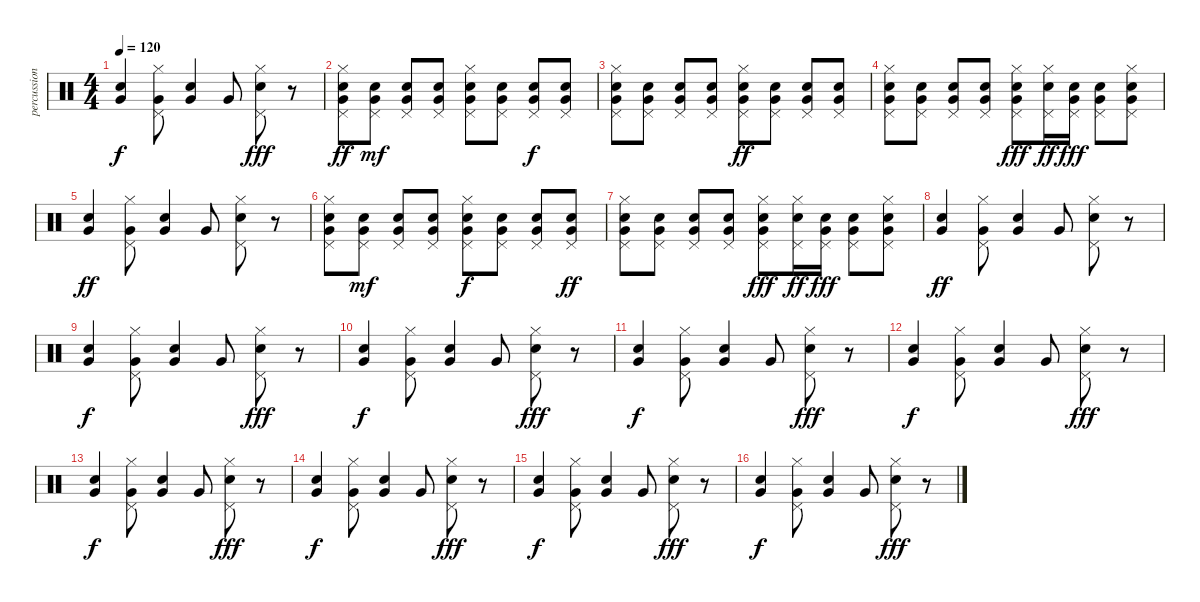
\track ("percussion" "percussion") {instrument percussion}
\staff {score}
\articulation defaults
\ts (4 4)
\tempo 120
\clef neutral
\ks c
("Snare (hit) 2" "Very Low Tom (hit)").4{dy f} ("Pedal Hi-Hat (hit)" "Hi-Hat (closed)" "Very Low Tom (hit)").8 ("Snare (hit) 2" "Very Low Tom (hit)").4 "Very Low Tom (hit)".8 ("Pedal Hi-Hat (hit)" "Hi-Hat (closed)" "Snare (hit) 2").8{dy fff} r.8 |
("Pedal Hi-Hat (hit)" "Hi-Hat (closed)" "Snare (hit) 2" "Very Low Tom (hit)").8{dy ff} ("Pedal Hi-Hat (hit)" "Snare (hit) 2" "Very Low Tom (hit)").8{dy mf} ("Pedal Hi-Hat (hit)" "Snare (hit) 2" "Very Low Tom (hit)").8 ("Pedal Hi-Hat (hit)" "Snare (hit) 2" "Very Low Tom (hit)").8 ("Pedal Hi-Hat (hit)" "Hi-Hat (closed)" "Snare (hit) 2" "Very Low Tom (hit)").8 ("Pedal Hi-Hat (hit)" "Snare (hit) 2" "Very Low Tom (hit)").8 ("Pedal Hi-Hat (hit)" "Snare (hit) 2" "Very Low Tom (hit)").8{dy f} ("Pedal Hi-Hat (hit)" "Snare (hit) 2" "Very Low Tom (hit)").8 |
("Pedal Hi-Hat (hit)" "Hi-Hat (closed)" "Snare (hit) 2" "Very Low Tom (hit)").8 ("Pedal Hi-Hat (hit)" "Snare (hit) 2" "Very Low Tom (hit)").8 ("Pedal Hi-Hat (hit)" "Snare (hit) 2" "Very Low Tom (hit)").8 ("Pedal Hi-Hat (hit)" "Snare (hit) 2" "Very Low Tom (hit)").8 ("Pedal Hi-Hat (hit)" "Hi-Hat (closed)" "Snare (hit) 2" "Very Low Tom (hit)").8{dy ff} ("Pedal Hi-Hat (hit)" "Snare (hit) 2" "Very Low Tom (hit)").8 ("Pedal Hi-Hat (hit)" "Snare (hit) 2" "Very Low Tom (hit)").8 ("Pedal Hi-Hat (hit)" "Snare (hit) 2" "Very Low Tom (hit)").8 |
("Pedal Hi-Hat (hit)" "Hi-Hat (closed)" "Snare (hit) 2" "Very Low Tom (hit)").8 ("Pedal Hi-Hat (hit)" "Snare (hit) 2" "Very Low Tom (hit)").8 ("Pedal Hi-Hat (hit)" "Snare (hit) 2" "Very Low Tom (hit)").8 ("Pedal Hi-Hat (hit)" "Snare (hit) 2" "Very Low Tom (hit)").8 ("Pedal Hi-Hat (hit)" "Hi-Hat (closed)" "Snare (hit) 2" "Very Low Tom (hit)").8{dy fff} ("Pedal Hi-Hat (hit)" "Hi-Hat (closed)" "Snare (hit) 2").16{dy ff} ("Pedal Hi-Hat (hit)" "Snare (hit) 2" "Very Low Tom (hit)").16{dy fff} ("Pedal Hi-Hat (hit)" "Snare (hit) 2" "Very Low Tom (hit)").8 ("Pedal Hi-Hat (hit)" "Hi-Hat (closed)" "Snare (hit) 2" "Very Low Tom (hit)").8 |
("Snare (hit) 2" "Very Low Tom (hit)").4{dy ff} ("Pedal Hi-Hat (hit)" "Hi-Hat (closed)" "Very Low Tom (hit)").8 ("Snare (hit) 2" "Very Low Tom (hit)").4 "Very Low Tom (hit)".8 ("Pedal Hi-Hat (hit)" "Hi-Hat (closed)" "Snare (hit) 2").8 r.8 |
("Pedal Hi-Hat (hit)" "Hi-Hat (closed)" "Snare (hit) 2" "Very Low Tom (hit)").8 ("Pedal Hi-Hat (hit)" "Snare (hit) 2" "Very Low Tom (hit)").8{dy mf} ("Pedal Hi-Hat (hit)" "Snare (hit) 2" "Very Low Tom (hit)").8 ("Pedal Hi-Hat (hit)" "Snare (hit) 2" "Very Low Tom (hit)").8 ("Pedal Hi-Hat (hit)" "Hi-Hat (closed)" "Snare (hit) 2" "Very Low Tom (hit)").8{dy f} ("Pedal Hi-Hat (hit)" "Snare (hit) 2" "Very Low Tom (hit)").8 ("Pedal Hi-Hat (hit)" "Snare (hit) 2" "Very Low Tom (hit)").8 ("Pedal Hi-Hat (hit)" "Snare (hit) 2" "Very Low Tom (hit)").8{dy ff} |
("Pedal Hi-Hat (hit)" "Hi-Hat (closed)" "Snare (hit) 2" "Very Low Tom (hit)").8 ("Pedal Hi-Hat (hit)" "Snare (hit) 2" "Very Low Tom (hit)").8 ("Pedal Hi-Hat (hit)" "Snare (hit) 2" "Very Low Tom (hit)").8 ("Pedal Hi-Hat (hit)" "Snare (hit) 2" "Very Low Tom (hit)").8 ("Pedal Hi-Hat (hit)" "Hi-Hat (closed)" "Snare (hit) 2" "Very Low Tom (hit)").8{dy fff} ("Pedal Hi-Hat (hit)" "Hi-Hat (closed)" "Snare (hit) 2").16{dy ff} ("Pedal Hi-Hat (hit)" "Snare (hit) 2" "Very Low Tom (hit)").16{dy fff} ("Pedal Hi-Hat (hit)" "Snare (hit) 2" "Very Low Tom (hit)").8 ("Pedal Hi-Hat (hit)" "Hi-Hat (closed)" "Snare (hit) 2" "Very Low Tom (hit)").8 |
("Snare (hit) 2" "Very Low Tom (hit)").4{dy ff} ("Pedal Hi-Hat (hit)" "Hi-Hat (closed)" "Very Low Tom (hit)").8 ("Snare (hit) 2" "Very Low Tom (hit)").4 "Very Low Tom (hit)".8 ("Pedal Hi-Hat (hit)" "Hi-Hat (closed)" "Snare (hit) 2").8 r.8 |
("Snare (hit) 2" "Very Low Tom (hit)").4{dy f} ("Pedal Hi-Hat (hit)" "Hi-Hat (closed)" "Very Low Tom (hit)").8 ("Snare (hit) 2" "Very Low Tom (hit)").4 "Very Low Tom (hit)".8 ("Pedal Hi-Hat (hit)" "Hi-Hat (closed)" "Snare (hit) 2").8{dy fff} r.8 |
("Snare (hit) 2" "Very Low Tom (hit)").4{dy f} ("Pedal Hi-Hat (hit)" "Hi-Hat (closed)" "Very Low Tom (hit)").8 ("Snare (hit) 2" "Very Low Tom (hit)").4 "Very Low Tom (hit)".8 ("Pedal Hi-Hat (hit)" "Hi-Hat (closed)" "Snare (hit) 2").8{dy fff} r.8 |
("Snare (hit) 2" "Very Low Tom (hit)").4{dy f} ("Pedal Hi-Hat (hit)" "Hi-Hat (closed)" "Very Low Tom (hit)").8 ("Snare (hit) 2" "Very Low Tom (hit)").4 "Very Low Tom (hit)".8 ("Pedal Hi-Hat (hit)" "Hi-Hat (closed)" "Snare (hit) 2").8{dy fff} r.8 |
("Snare (hit) 2" "Very Low Tom (hit)").4{dy f} ("Pedal Hi-Hat (hit)" "Hi-Hat (closed)" "Very Low Tom (hit)").8 ("Snare (hit) 2" "Very Low Tom (hit)").4 "Very Low Tom (hit)".8 ("Pedal Hi-Hat (hit)" "Hi-Hat (closed)" "Snare (hit) 2").8{dy fff} r.8 |
("Snare (hit) 2" "Very Low Tom (hit)").4{dy f} ("Pedal Hi-Hat (hit)" "Hi-Hat (closed)" "Very Low Tom (hit)").8 ("Snare (hit) 2" "Very Low Tom (hit)").4 "Very Low Tom (hit)".8 ("Pedal Hi-Hat (hit)" "Hi-Hat (closed)" "Snare (hit) 2").8{dy fff} r.8 |
("Snare (hit) 2" "Very Low Tom (hit)").4{dy f} ("Pedal Hi-Hat (hit)" "Hi-Hat (closed)" "Very Low Tom (hit)").8 ("Snare (hit) 2" "Very Low Tom (hit)").4 "Very Low Tom (hit)".8 ("Pedal Hi-Hat (hit)" "Hi-Hat (closed)" "Snare (hit) 2").8{dy fff} r.8 |
("Snare (hit) 2" "Very Low Tom (hit)").4{dy f} ("Pedal Hi-Hat (hit)" "Hi-Hat (closed)" "Very Low Tom (hit)").8 ("Snare (hit) 2" "Very Low Tom (hit)").4 "Very Low Tom (hit)".8 ("Pedal Hi-Hat (hit)" "Hi-Hat (closed)" "Snare (hit) 2").8{dy fff} r.8 |
("Snare (hit) 2" "Very Low Tom (hit)").4{dy f} ("Pedal Hi-Hat (hit)" "Hi-Hat (closed)" "Very Low Tom (hit)").8 ("Snare (hit) 2" "Very Low Tom (hit)").4 "Very Low Tom (hit)".8 ("Pedal Hi-Hat (hit)" "Hi-Hat (closed)" "Snare (hit) 2").8{dy fff} r.8
